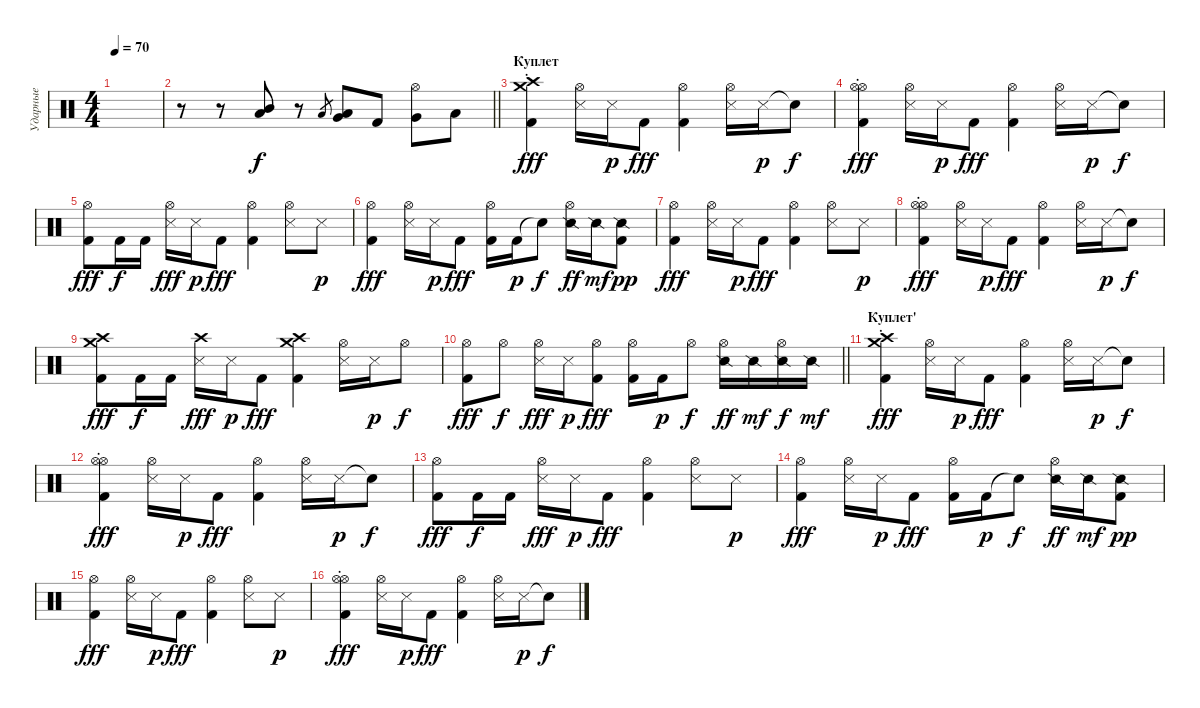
\track ("Ударные" "Ударные") {instrument percussion}
\staff {score}
\articulation defaults
\ts (4 4)
\tempo 70
\clef neutral
\ks c
|
\barLineRight lightlight
r.8 r.8 ("Low Tom (hit)" "Mid Tom (hit)").8 r.8 "Low Floor Tom (hit)".8{gr} ("Very Low Tom (hit)" "Low Tom (hit)").8 "Kick (hit) 2".8 ("Hi-Hat (open)" "Very Low Tom (hit)").8 "Low Floor Tom (hit)".8 |
\section ("" "Куплет")
("Crash medium (hit)" "Crash high (hit)"{st} "Kick (hit) 2").4{dy fff} ("Hi-Hat (open)" "Snare (side stick) 3").16 "Snare (side stick) 3".16{dy p} "Kick (hit) 2".8{dy fff} ("Hi-Hat (open)" "Kick (hit) 2").4 ("Hi-Hat (open)" "Snare (side stick) 3").16 "Snare (side stick) 3".16{dy p} "Snare (hit)"{t}.8{dy f} |
("Hi-Hat (open)" "Hi-Hat (open)"{st} "Kick (hit) 2").4{dy fff} ("Hi-Hat (open)" "Snare (side stick) 3").16 "Snare (side stick) 3".16{dy p} "Kick (hit) 2".8{dy fff} ("Hi-Hat (open)" "Kick (hit) 2").4 ("Hi-Hat (open)" "Snare (side stick) 3").16 "Snare (side stick) 3".16{dy p} "Snare (hit)"{t}.8{dy f} |
("Hi-Hat (open)" "Kick (hit) 2").8{dy fff} "Kick (hit) 2".16{dy f} "Kick (hit) 2".16 ("Snare (side stick) 3" "Hi-Hat (open)").16{dy fff} "Snare (side stick) 3".16{dy p} "Kick (hit) 2".8{dy fff} ("Hi-Hat (open)" "Kick (hit) 2").4 ("Hi-Hat (open)" "Snare (side stick) 3").8 "Snare (side stick) 3".8{dy p} |
("Hi-Hat (open)" "Kick (hit) 2").4{dy fff} ("Snare (side stick) 3" "Hi-Hat (open)").16 "Snare (side stick) 3".16{dy p} "Kick (hit) 2".8{dy fff} ("Hi-Hat (open)" "Kick (hit) 2").16 "Kick (hit) 2".16{dy p} "Snare (hit)"{t}.8{dy f} ("Hi-Hat (open)" "Snare (side stick) 2").16{dy ff} "Snare (side stick) 2".16{dy mf} ("Kick (hit) 2" "Snare (side stick) 2").8{dy pp} |
("Hi-Hat (open)" "Kick (hit) 2").4{dy fff} ("Hi-Hat (open)" "Snare (side stick) 3").16 "Snare (side stick) 3".16{dy p} "Kick (hit) 2".8{dy fff} ("Hi-Hat (open)" "Kick (hit) 2").4 ("Hi-Hat (open)" "Snare (side stick) 3").8 "Snare (side stick) 3".8{dy p} |
("Hi-Hat (open)" "Hi-Hat (open)"{st} "Kick (hit) 2").4{dy fff} ("Hi-Hat (open)" "Snare (side stick) 3").16 "Snare (side stick) 3".16{dy p} "Kick (hit) 2".8{dy fff} ("Hi-Hat (open)" "Kick (hit) 2").4 ("Hi-Hat (open)" "Snare (side stick) 3").16 "Snare (side stick) 3".16{dy p} "Snare (hit)"{t}.8{dy f} |
("Crash medium (hit)" "Crash high (hit)" "Kick (hit) 2").8{dy fff} "Kick (hit) 2".16{dy f} "Kick (hit) 2".16 ("Crash high (hit)" "Snare (side stick) 3").16{dy fff} "Snare (side stick) 3".16{dy p} "Kick (hit) 2".8{dy fff} ("Crash medium (hit)" "Crash high (hit)" "Kick (hit) 2").4 ("Hi-Hat (open)" "Snare (side stick) 3").16 "Snare (side stick) 3".16{dy p} "Hi-Hat (open)".8{dy f} |
\barLineRight lightlight
("Hi-Hat (open)" "Kick (hit) 2").8{dy fff} "Hi-Hat (open)".8{dy f} ("Snare (side stick) 3" "Hi-Hat (open)").16{dy fff} "Snare (side stick) 3".16{dy p} ("Kick (hit) 2" "Hi-Hat (open)").8{dy fff} ("Hi-Hat (open)" "Kick (hit) 2").16 "Kick (hit) 2".16{dy p} "Hi-Hat (open)".8{dy f} ("Hi-Hat (open)" "Snare (side stick) 2").16{dy ff} "Snare (side stick) 2".16{dy mf} ("Hi-Hat (open)" "Snare (side stick) 2").16{dy f} "Snare (side stick) 2".16{dy mf} |
\section ("" "Куплет'")
("Crash medium (hit)" "Crash high (hit)"{st} "Kick (hit) 2").4{dy fff} ("Hi-Hat (open)" "Snare (side stick) 3").16 "Snare (side stick) 3".16{dy p} "Kick (hit) 2".8{dy fff} ("Hi-Hat (open)" "Kick (hit) 2").4 ("Hi-Hat (open)" "Snare (side stick) 3").16 "Snare (side stick) 3".16{dy p} "Snare (hit)"{t}.8{dy f} |
("Hi-Hat (open)" "Hi-Hat (open)"{st} "Kick (hit) 2").4{dy fff} ("Hi-Hat (open)" "Snare (side stick) 3").16 "Snare (side stick) 3".16{dy p} "Kick (hit) 2".8{dy fff} ("Hi-Hat (open)" "Kick (hit) 2").4 ("Hi-Hat (open)" "Snare (side stick) 3").16 "Snare (side stick) 3".16{dy p} "Snare (hit)"{t}.8{dy f} |
("Hi-Hat (open)" "Kick (hit) 2").8{dy fff} "Kick (hit) 2".16{dy f} "Kick (hit) 2".16 ("Snare (side stick) 3" "Hi-Hat (open)").16{dy fff} "Snare (side stick) 3".16{dy p} "Kick (hit) 2".8{dy fff} ("Hi-Hat (open)" "Kick (hit) 2").4 ("Hi-Hat (open)" "Snare (side stick) 3").8 "Snare (side stick) 3".8{dy p} |
("Hi-Hat (open)" "Kick (hit) 2").4{dy fff} ("Snare (side stick) 3" "Hi-Hat (open)").16 "Snare (side stick) 3".16{dy p} "Kick (hit) 2".8{dy fff} ("Hi-Hat (open)" "Kick (hit) 2").16 "Kick (hit) 2".16{dy p} "Snare (hit)"{t}.8{dy f} ("Hi-Hat (open)" "Snare (side stick) 2").16{dy ff} "Snare (side stick) 2".16{dy mf} ("Kick (hit) 2" "Snare (side stick) 2").8{dy pp} |
("Hi-Hat (open)" "Kick (hit) 2").4{dy fff} ("Hi-Hat (open)" "Snare (side stick) 3").16 "Snare (side stick) 3".16{dy p} "Kick (hit) 2".8{dy fff} ("Hi-Hat (open)" "Kick (hit) 2").4 ("Hi-Hat (open)" "Snare (side stick) 3").8 "Snare (side stick) 3".8{dy p} |
("Hi-Hat (open)" "Hi-Hat (open)"{st} "Kick (hit) 2").4{dy fff} ("Hi-Hat (open)" "Snare (side stick) 3").16 "Snare (side stick) 3".16{dy p} "Kick (hit) 2".8{dy fff} ("Hi-Hat (open)" "Kick (hit) 2").4 ("Hi-Hat (open)" "Snare (side stick) 3").16 "Snare (side stick) 3".16{dy p} "Snare (hit)"{t}.8{dy f}
